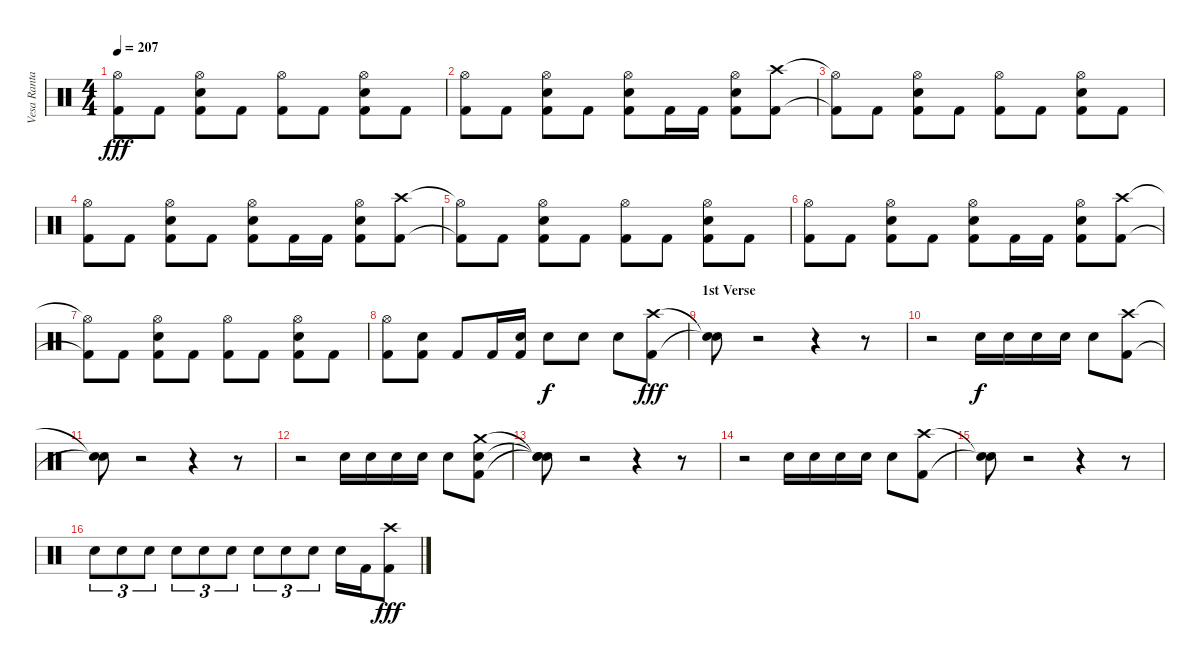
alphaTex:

\track ("Vesa Ranta" "Vesa Ranta") {instrument percussion}
\staff {score}
\articulation defaults
\ts (4 4)
\tempo 207
\clef neutral
\ks c
("Hi-Hat (open)"{t} "Kick (hit) 2"{t}).8{dy fff} "Kick (hit) 2".8 ("Hi-Hat (open)" "Snare (hit) 2" "Kick (hit) 2").8 "Kick (hit) 2".8 ("Hi-Hat (open)" "Kick (hit) 2").8 "Kick (hit) 2".8 ("Hi-Hat (open)" "Snare (hit) 2" "Kick (hit) 2").8 "Kick (hit) 2".8 |
("Hi-Hat (open)" "Kick (hit) 2").8 "Kick (hit) 2".8 ("Hi-Hat (open)" "Snare (hit) 2" "Kick (hit) 2").8 "Kick (hit) 2".8 ("Hi-Hat (open)" "Snare (hit) 2" "Kick (hit) 2").8 "Kick (hit) 2".16 "Kick (hit) 2".16 ("Hi-Hat (open)" "Snare (hit) 2" "Kick (hit) 2").8 ("Crash high (hit)" "Kick (hit) 2").8 |
("Hi-Hat (open)"{t} "Kick (hit) 2"{t}).8 "Kick (hit) 2".8 ("Hi-Hat (open)" "Snare (hit) 2" "Kick (hit) 2").8 "Kick (hit) 2".8 ("Hi-Hat (open)" "Kick (hit) 2").8 "Kick (hit) 2".8 ("Hi-Hat (open)" "Snare (hit) 2" "Kick (hit) 2").8 "Kick (hit) 2".8 |
("Hi-Hat (open)" "Kick (hit) 2").8 "Kick (hit) 2".8 ("Hi-Hat (open)" "Snare (hit) 2" "Kick (hit) 2").8 "Kick (hit) 2".8 ("Hi-Hat (open)" "Snare (hit) 2" "Kick (hit) 2").8 "Kick (hit) 2".16 "Kick (hit) 2".16 ("Hi-Hat (open)" "Snare (hit) 2" "Kick (hit) 2").8 ("Crash high (hit)" "Kick (hit) 2").8 |
("Hi-Hat (open)"{t} "Kick (hit) 2"{t}).8 "Kick (hit) 2".8 ("Hi-Hat (open)" "Snare (hit) 2" "Kick (hit) 2").8 "Kick (hit) 2".8 ("Hi-Hat (open)" "Kick (hit) 2").8 "Kick (hit) 2".8 ("Hi-Hat (open)" "Snare (hit) 2" "Kick (hit) 2").8 "Kick (hit) 2".8 |
("Hi-Hat (open)" "Kick (hit) 2").8 "Kick (hit) 2".8 ("Hi-Hat (open)" "Snare (hit) 2" "Kick (hit) 2").8 "Kick (hit) 2".8 ("Hi-Hat (open)" "Snare (hit) 2" "Kick (hit) 2").8 "Kick (hit) 2".16 "Kick (hit) 2".16 ("Hi-Hat (open)" "Snare (hit) 2" "Kick (hit) 2").8 ("Crash high (hit)" "Kick (hit) 2").8 |
("Hi-Hat (open)"{t} "Kick (hit) 2"{t}).8 "Kick (hit) 2".8 ("Hi-Hat (open)" "Snare (hit) 2" "Kick (hit) 2").8 "Kick (hit) 2".8 ("Hi-Hat (open)" "Kick (hit) 2").8 "Kick (hit) 2".8 ("Hi-Hat (open)" "Snare (hit) 2" "Kick (hit) 2").8 "Kick (hit) 2".8 |
("Hi-Hat (open)" "Kick (hit) 2").8 ("Snare (hit) 2" "Kick (hit) 2").8 "Kick (hit) 2".8 "Kick (hit) 2".16 ("Snare (hit) 2" "Kick (hit) 2").16 "Snare (hit) 2".8{dy f} "Snare (hit) 2".8 "Snare (hit) 2".8 ("Crash high (hit)" "Kick (hit) 2").8{dy fff} |
\section ("" "1st Verse")
("Snare (hit)"{t} "Snare (hit)"{t}).8 r.2 r.4 r.8 |
r.2 "Snare (hit) 2".16{dy f} "Snare (hit) 2".16 "Snare (hit) 2".16 "Snare (hit) 2".16 "Snare (hit) 2".8 ("Kick (hit) 2" "Crash high (hit)").8 |
("Snare (hit)"{t} "Snare (hit)"{t}).8 r.2 r.4 r.8 |
r.2 "Snare (hit) 2".16 "Snare (hit) 2".16 "Snare (hit) 2".16 "Snare (hit) 2".16 "Snare (hit) 2".8 ("Kick (hit) 2" "Snare (hit) 2" "Crash medium (hit)").8 |
("Snare (hit)"{t} "Snare (hit)"{t} "Snare (hit)"{t}).8 r.2 r.4 r.8 |
r.2 "Snare (hit) 2".16 "Snare (hit) 2".16 "Snare (hit) 2".16 "Snare (hit) 2".16 "Snare (hit) 2".8 ("Kick (hit) 2" "Crash high (hit)").8 |
("Snare (hit)"{t} "Snare (hit)"{t}).8 r.2 r.4 r.8 |
"Snare (hit) 2".8{tu (3 2)} "Snare (hit) 2".8{tu (3 2)} "Snare (hit) 2".8{tu (3 2)} "Snare (hit) 2".8{tu (3 2)} "Snare (hit) 2".8{tu (3 2)} "Snare (hit) 2".8{tu (3 2)} "Snare (hit) 2".8{tu (3 2)} "Snare (hit) 2".8{tu (3 2)} "Snare (hit) 2".8{tu (3 2)} "Snare (hit) 2".16 "Kick (hit) 2".16 ("Crash high (hit)" "Kick (hit) 2").8{dy fff}
